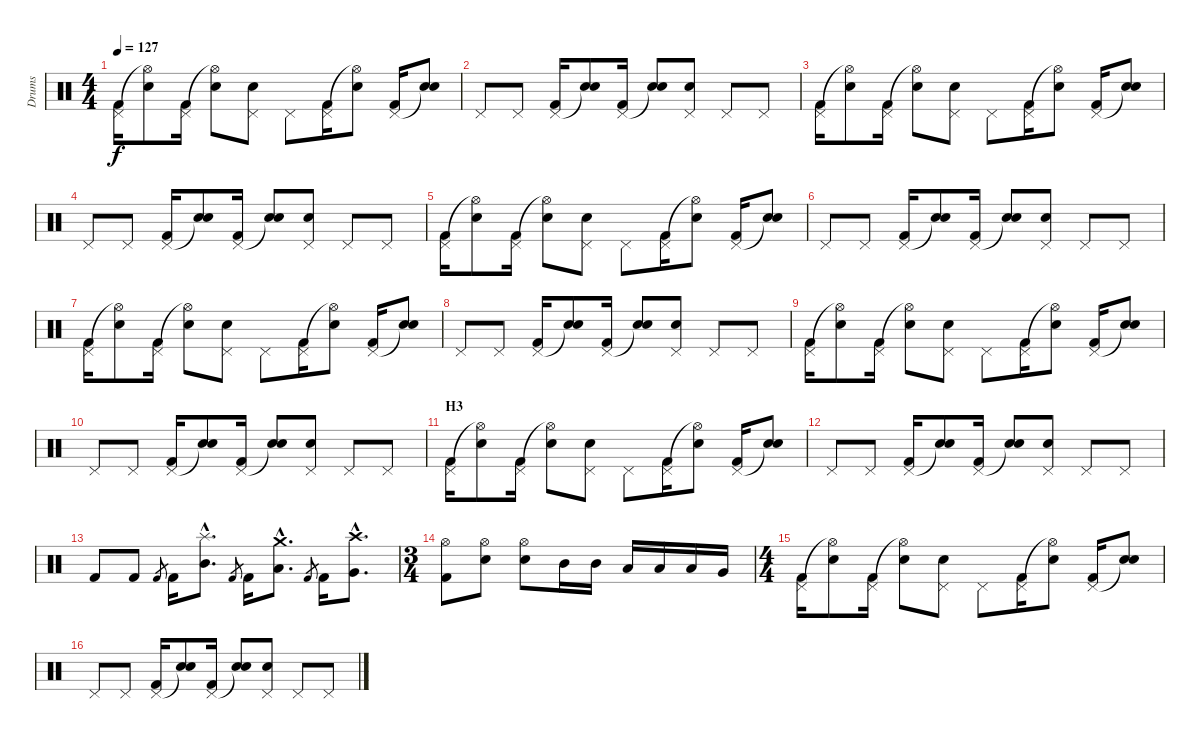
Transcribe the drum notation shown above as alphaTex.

\track ("Drums" "Drums") {instrument percussion}
\staff {score}
\articulation defaults
\ts (4 4)
\tempo 127
\clef neutral
\ks c
("Pedal Hi-Hat (hit)" "Kick (hit) 2").16{dy f} ("Hi-Hat (open)"{t} "Electric Snare (hit)").8 ("Pedal Hi-Hat (hit)" "Kick (hit) 2").16 ("Hi-Hat (open)"{t} "Electric Snare (hit)").8 ("Pedal Hi-Hat (hit)" "Electric Snare (hit)").8 "Pedal Hi-Hat (hit)".8 ("Pedal Hi-Hat (hit)" "Kick (hit) 2").16 ("Hi-Hat (open)"{t} "Electric Snare (hit)").8 ("Pedal Hi-Hat (hit)" "Kick (hit) 2").16 ("Snare (hit)"{t} "Electric Snare (hit)").8 |
"Pedal Hi-Hat (hit)".8 "Pedal Hi-Hat (hit)".8 ("Pedal Hi-Hat (hit)" "Kick (hit) 2").16 ("Snare (hit)"{t} "Electric Snare (hit)").8 ("Pedal Hi-Hat (hit)" "Kick (hit) 2").16 ("Snare (hit)"{t} "Electric Snare (hit)").8 ("Pedal Hi-Hat (hit)" "Electric Snare (hit)").8 "Pedal Hi-Hat (hit)".8 "Pedal Hi-Hat (hit)".8 |
("Pedal Hi-Hat (hit)" "Kick (hit) 2").16 ("Hi-Hat (open)"{t} "Electric Snare (hit)").8 ("Pedal Hi-Hat (hit)" "Kick (hit) 2").16 ("Hi-Hat (open)"{t} "Electric Snare (hit)").8 ("Pedal Hi-Hat (hit)" "Electric Snare (hit)").8 "Pedal Hi-Hat (hit)".8 ("Pedal Hi-Hat (hit)" "Kick (hit) 2").16 ("Hi-Hat (open)"{t} "Electric Snare (hit)").8 ("Pedal Hi-Hat (hit)" "Kick (hit) 2").16 ("Snare (hit)"{t} "Electric Snare (hit)").8 |
"Pedal Hi-Hat (hit)".8 "Pedal Hi-Hat (hit)".8 ("Pedal Hi-Hat (hit)" "Kick (hit) 2").16 ("Snare (hit)"{t} "Electric Snare (hit)").8 ("Pedal Hi-Hat (hit)" "Kick (hit) 2").16 ("Snare (hit)"{t} "Electric Snare (hit)").8 ("Pedal Hi-Hat (hit)" "Electric Snare (hit)").8 "Pedal Hi-Hat (hit)".8 "Pedal Hi-Hat (hit)".8 |
("Pedal Hi-Hat (hit)" "Kick (hit) 2").16 ("Hi-Hat (open)"{t} "Electric Snare (hit)").8 ("Pedal Hi-Hat (hit)" "Kick (hit) 2").16 ("Hi-Hat (open)"{t} "Electric Snare (hit)").8 ("Pedal Hi-Hat (hit)" "Electric Snare (hit)").8 "Pedal Hi-Hat (hit)".8 ("Pedal Hi-Hat (hit)" "Kick (hit) 2").16 ("Hi-Hat (open)"{t} "Electric Snare (hit)").8 ("Pedal Hi-Hat (hit)" "Kick (hit) 2").16 ("Snare (hit)"{t} "Electric Snare (hit)").8 |
"Pedal Hi-Hat (hit)".8 "Pedal Hi-Hat (hit)".8 ("Pedal Hi-Hat (hit)" "Kick (hit) 2").16 ("Snare (hit)"{t} "Electric Snare (hit)").8 ("Pedal Hi-Hat (hit)" "Kick (hit) 2").16 ("Snare (hit)"{t} "Electric Snare (hit)").8 ("Pedal Hi-Hat (hit)" "Electric Snare (hit)").8 "Pedal Hi-Hat (hit)".8 "Pedal Hi-Hat (hit)".8 |
("Pedal Hi-Hat (hit)" "Kick (hit) 2").16 ("Hi-Hat (open)"{t} "Electric Snare (hit)").8 ("Pedal Hi-Hat (hit)" "Kick (hit) 2").16 ("Hi-Hat (open)"{t} "Electric Snare (hit)").8 ("Pedal Hi-Hat (hit)" "Electric Snare (hit)").8 "Pedal Hi-Hat (hit)".8 ("Pedal Hi-Hat (hit)" "Kick (hit) 2").16 ("Hi-Hat (open)"{t} "Electric Snare (hit)").8 ("Pedal Hi-Hat (hit)" "Kick (hit) 2").16 ("Snare (hit)"{t} "Electric Snare (hit)").8 |
"Pedal Hi-Hat (hit)".8 "Pedal Hi-Hat (hit)".8 ("Pedal Hi-Hat (hit)" "Kick (hit) 2").16 ("Snare (hit)"{t} "Electric Snare (hit)").8 ("Pedal Hi-Hat (hit)" "Kick (hit) 2").16 ("Snare (hit)"{t} "Electric Snare (hit)").8 ("Pedal Hi-Hat (hit)" "Electric Snare (hit)").8 "Pedal Hi-Hat (hit)".8 "Pedal Hi-Hat (hit)".8 |
("Pedal Hi-Hat (hit)" "Kick (hit) 2").16 ("Hi-Hat (open)"{t} "Electric Snare (hit)").8 ("Pedal Hi-Hat (hit)" "Kick (hit) 2").16 ("Hi-Hat (open)"{t} "Electric Snare (hit)").8 ("Pedal Hi-Hat (hit)" "Electric Snare (hit)").8 "Pedal Hi-Hat (hit)".8 ("Pedal Hi-Hat (hit)" "Kick (hit) 2").16 ("Hi-Hat (open)"{t} "Electric Snare (hit)").8 ("Pedal Hi-Hat (hit)" "Kick (hit) 2").16 ("Snare (hit)"{t} "Electric Snare (hit)").8 |
"Pedal Hi-Hat (hit)".8 "Pedal Hi-Hat (hit)".8 ("Pedal Hi-Hat (hit)" "Kick (hit) 2").16 ("Snare (hit)"{t} "Electric Snare (hit)").8 ("Pedal Hi-Hat (hit)" "Kick (hit) 2").16 ("Snare (hit)"{t} "Electric Snare (hit)").8 ("Pedal Hi-Hat (hit)" "Electric Snare (hit)").8 "Pedal Hi-Hat (hit)".8 "Pedal Hi-Hat (hit)".8 |
\section ("" "H3")
("Pedal Hi-Hat (hit)" "Kick (hit) 2").16 ("Hi-Hat (open)"{t} "Electric Snare (hit)").8 ("Pedal Hi-Hat (hit)" "Kick (hit) 2").16 ("Hi-Hat (open)"{t} "Electric Snare (hit)").8 ("Pedal Hi-Hat (hit)" "Electric Snare (hit)").8 "Pedal Hi-Hat (hit)".8 ("Pedal Hi-Hat (hit)" "Kick (hit) 2").16 ("Hi-Hat (open)"{t} "Electric Snare (hit)").8 ("Pedal Hi-Hat (hit)" "Kick (hit) 2").16 ("Snare (hit)"{t} "Electric Snare (hit)").8 |
"Pedal Hi-Hat (hit)".8 "Pedal Hi-Hat (hit)".8 ("Pedal Hi-Hat (hit)" "Kick (hit) 2").16 ("Snare (hit)"{t} "Electric Snare (hit)").8 ("Pedal Hi-Hat (hit)" "Kick (hit) 2").16 ("Snare (hit)"{t} "Electric Snare (hit)").8 ("Pedal Hi-Hat (hit)" "Electric Snare (hit)").8 "Pedal Hi-Hat (hit)".8 "Pedal Hi-Hat (hit)".8 |
"Kick (hit) 2".8 "Kick (hit) 2".8 "Kick (hit) 2".8{gr} "Kick (hit) 2".16 ("Splash (hit)"{hac} "Mid Tom (hit)"{hac}).8{d} "Kick (hit) 2".8{gr} "Kick (hit) 2".16 ("Crash medium (hit)"{hac} "Low Tom (hit)"{hac}).8{d} "Kick (hit) 2".8{gr} "Kick (hit) 2".16 ("Crash high (hit)"{hac} "Very Low Tom (hit)"{hac}).8{d} |
\ts (3 4)
("Hi-Hat (open)" "Kick (hit) 2").8 ("Hi-Hat (open)" "Electric Snare (hit)").8 ("Hi-Hat (open)" "Electric Snare (hit)").8 "Mid Tom (hit)".16 "Mid Tom (hit)".16 "Low Tom (hit)".16 "Low Tom (hit)".16 "Low Tom (hit)".16 "Very Low Tom (hit)".16 |
\ts (4 4)
("Pedal Hi-Hat (hit)" "Kick (hit) 2").16 ("Hi-Hat (open)"{t} "Electric Snare (hit)").8 ("Pedal Hi-Hat (hit)" "Kick (hit) 2").16 ("Hi-Hat (open)"{t} "Electric Snare (hit)").8 ("Pedal Hi-Hat (hit)" "Electric Snare (hit)").8 "Pedal Hi-Hat (hit)".8 ("Pedal Hi-Hat (hit)" "Kick (hit) 2").16 ("Hi-Hat (open)"{t} "Electric Snare (hit)").8 ("Pedal Hi-Hat (hit)" "Kick (hit) 2").16 ("Snare (hit)"{t} "Electric Snare (hit)").8 |
"Pedal Hi-Hat (hit)".8 "Pedal Hi-Hat (hit)".8 ("Pedal Hi-Hat (hit)" "Kick (hit) 2").16 ("Snare (hit)"{t} "Electric Snare (hit)").8 ("Pedal Hi-Hat (hit)" "Kick (hit) 2").16 ("Snare (hit)"{t} "Electric Snare (hit)").8 ("Pedal Hi-Hat (hit)" "Electric Snare (hit)").8 "Pedal Hi-Hat (hit)".8 "Pedal Hi-Hat (hit)".8
